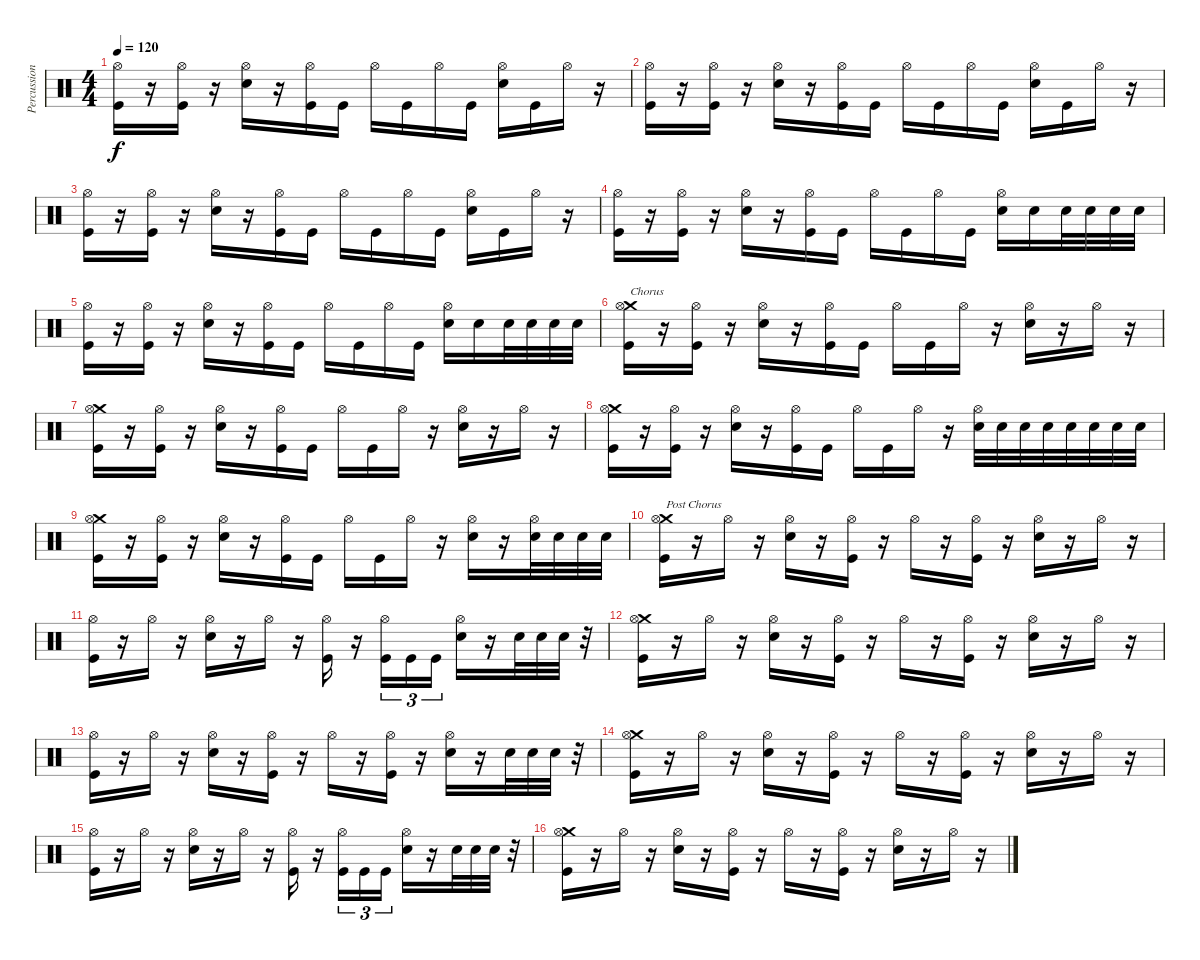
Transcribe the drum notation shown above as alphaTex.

\track ("Percussion" "Percussion") {instrument percussion}
\staff {score}
\articulation defaults
\ts (4 4)
\tempo 120
\clef neutral
\ks c
("Hi-Hat (open)" "Kick (hit)").16{dy f} r.16 ("Hi-Hat (open)" "Kick (hit)").16 r.16 ("Hi-Hat (open)" "Electric Snare (hit)").16 r.16 ("Hi-Hat (open)" "Kick (hit)").16 "Kick (hit)".16 "Hi-Hat (open)".16 "Kick (hit)".16 "Hi-Hat (open)".16 "Kick (hit)".16 ("Hi-Hat (open)" "Electric Snare (hit)").16 "Kick (hit)".16 "Hi-Hat (open)".16 r.16 |
("Hi-Hat (open)" "Kick (hit)").16 r.16 ("Hi-Hat (open)" "Kick (hit)").16 r.16 ("Hi-Hat (open)" "Electric Snare (hit)").16 r.16 ("Hi-Hat (open)" "Kick (hit)").16 "Kick (hit)".16 "Hi-Hat (open)".16 "Kick (hit)".16 "Hi-Hat (open)".16 "Kick (hit)".16 ("Hi-Hat (open)" "Electric Snare (hit)").16 "Kick (hit)".16 "Hi-Hat (open)".16 r.16 |
("Hi-Hat (open)" "Kick (hit)").16 r.16 ("Hi-Hat (open)" "Kick (hit)").16 r.16 ("Hi-Hat (open)" "Electric Snare (hit)").16 r.16 ("Hi-Hat (open)" "Kick (hit)").16 "Kick (hit)".16 "Hi-Hat (open)".16 "Kick (hit)".16 "Hi-Hat (open)".16 "Kick (hit)".16 ("Hi-Hat (open)" "Electric Snare (hit)").16 "Kick (hit)".16 "Hi-Hat (open)".16 r.16 |
("Hi-Hat (open)" "Kick (hit)").16 r.16 ("Hi-Hat (open)" "Kick (hit)").16 r.16 ("Hi-Hat (open)" "Electric Snare (hit)").16 r.16 ("Hi-Hat (open)" "Kick (hit)").16 "Kick (hit)".16 "Hi-Hat (open)".16 "Kick (hit)".16 "Hi-Hat (open)".16 "Kick (hit)".16 ("Hi-Hat (open)" "Electric Snare (hit)").16 "Electric Snare (hit)".16 "Electric Snare (hit)".32 "Electric Snare (hit)".32 "Electric Snare (hit)".32 "Electric Snare (hit)".32 |
("Hi-Hat (open)" "Kick (hit)").16 r.16 ("Hi-Hat (open)" "Kick (hit)").16 r.16 ("Hi-Hat (open)" "Electric Snare (hit)").16 r.16 ("Hi-Hat (open)" "Kick (hit)").16 "Kick (hit)".16 "Hi-Hat (open)".16 "Kick (hit)".16 "Hi-Hat (open)".16 "Kick (hit)".16 ("Hi-Hat (open)" "Electric Snare (hit)").16 "Electric Snare (hit)".16 "Electric Snare (hit)".32 "Electric Snare (hit)".32 "Electric Snare (hit)".32 "Electric Snare (hit)".32 |
("Crash medium (hit)" "Hi-Hat (open)" "Kick (hit)").16{txt "Chorus"} r.16 ("Hi-Hat (open)" "Kick (hit)").16 r.16 ("Hi-Hat (open)" "Electric Snare (hit)").16 r.16 ("Hi-Hat (open)" "Kick (hit)").16 "Kick (hit)".16 "Hi-Hat (open)".16 "Kick (hit)".16 "Hi-Hat (open)".16 r.16 ("Hi-Hat (open)" "Electric Snare (hit)").16 r.16 "Hi-Hat (open)".16 r.16 |
("Crash medium (hit)" "Hi-Hat (open)" "Kick (hit)").16 r.16 ("Hi-Hat (open)" "Kick (hit)").16 r.16 ("Hi-Hat (open)" "Electric Snare (hit)").16 r.16 ("Hi-Hat (open)" "Kick (hit)").16 "Kick (hit)".16 "Hi-Hat (open)".16 "Kick (hit)".16 "Hi-Hat (open)".16 r.16 ("Hi-Hat (open)" "Electric Snare (hit)").16 r.16 "Hi-Hat (open)".16 r.16 |
("Crash medium (hit)" "Hi-Hat (open)" "Kick (hit)").16 r.16 ("Hi-Hat (open)" "Kick (hit)").16 r.16 ("Hi-Hat (open)" "Electric Snare (hit)").16 r.16 ("Hi-Hat (open)" "Kick (hit)").16 "Kick (hit)".16 "Hi-Hat (open)".16 "Kick (hit)".16 "Hi-Hat (open)".16 r.16 ("Hi-Hat (open)" "Electric Snare (hit)").32 "Electric Snare (hit)".32 "Electric Snare (hit)".32 "Electric Snare (hit)".32 "Electric Snare (hit)".32 "Electric Snare (hit)".32 "Electric Snare (hit)".32 "Electric Snare (hit)".32 |
("Crash medium (hit)" "Hi-Hat (open)" "Kick (hit)").16 r.16 ("Hi-Hat (open)" "Kick (hit)").16 r.16 ("Hi-Hat (open)" "Electric Snare (hit)").16 r.16 ("Hi-Hat (open)" "Kick (hit)").16 "Kick (hit)".16 "Hi-Hat (open)".16 "Kick (hit)".16 "Hi-Hat (open)".16 r.16 ("Hi-Hat (open)" "Electric Snare (hit)").16 r.16 ("Hi-Hat (open)" "Electric Snare (hit)").32 "Electric Snare (hit)".32 "Electric Snare (hit)".32 "Electric Snare (hit)".32 |
("Crash medium (hit)" "Hi-Hat (open)" "Kick (hit)").16{txt "Post Chorus"} r.16 "Hi-Hat (open)".16 r.16 ("Hi-Hat (open)" "Electric Snare (hit)").16 r.16 ("Hi-Hat (open)" "Kick (hit)").16 r.16 "Hi-Hat (open)".16 r.16 ("Hi-Hat (open)" "Kick (hit)").16 r.16 ("Hi-Hat (open)" "Electric Snare (hit)").16 r.16 "Hi-Hat (open)".16 r.16 |
("Hi-Hat (open)" "Kick (hit)").16 r.16 "Hi-Hat (open)".16 r.16 ("Hi-Hat (open)" "Electric Snare (hit)").16 r.16 "Hi-Hat (open)".16 r.16 ("Hi-Hat (open)" "Kick (hit)").16 r.16 ("Hi-Hat (open)" "Kick (hit)").16{tu (3 2)} "Kick (hit)".16{tu (3 2)} "Kick (hit)".16{tu (3 2)} ("Hi-Hat (open)" "Electric Snare (hit)").16 r.16 "Electric Snare (hit)".32 "Electric Snare (hit)".32 "Electric Snare (hit)".32 r.32 |
("Crash medium (hit)" "Hi-Hat (open)" "Kick (hit)").16 r.16 "Hi-Hat (open)".16 r.16 ("Hi-Hat (open)" "Electric Snare (hit)").16 r.16 ("Hi-Hat (open)" "Kick (hit)").16 r.16 "Hi-Hat (open)".16 r.16 ("Hi-Hat (open)" "Kick (hit)").16 r.16 ("Hi-Hat (open)" "Electric Snare (hit)").16 r.16 "Hi-Hat (open)".16 r.16 |
("Hi-Hat (open)" "Kick (hit)").16 r.16 "Hi-Hat (open)".16 r.16 ("Hi-Hat (open)" "Electric Snare (hit)").16 r.16 ("Hi-Hat (open)" "Kick (hit)").16 r.16 "Hi-Hat (open)".16 r.16 ("Hi-Hat (open)" "Kick (hit)").16 r.16 ("Hi-Hat (open)" "Electric Snare (hit)").16 r.16 "Electric Snare (hit)".32 "Electric Snare (hit)".32 "Electric Snare (hit)".32 r.32 |
("Crash medium (hit)" "Hi-Hat (open)" "Kick (hit)").16 r.16 "Hi-Hat (open)".16 r.16 ("Hi-Hat (open)" "Electric Snare (hit)").16 r.16 ("Hi-Hat (open)" "Kick (hit)").16 r.16 "Hi-Hat (open)".16 r.16 ("Hi-Hat (open)" "Kick (hit)").16 r.16 ("Hi-Hat (open)" "Electric Snare (hit)").16 r.16 "Hi-Hat (open)".16 r.16 |
("Hi-Hat (open)" "Kick (hit)").16 r.16 "Hi-Hat (open)".16 r.16 ("Hi-Hat (open)" "Electric Snare (hit)").16 r.16 "Hi-Hat (open)".16 r.16 ("Hi-Hat (open)" "Kick (hit)").16 r.16 ("Hi-Hat (open)" "Kick (hit)").16{tu (3 2)} "Kick (hit)".16{tu (3 2)} "Kick (hit)".16{tu (3 2)} ("Hi-Hat (open)" "Electric Snare (hit)").16 r.16 "Electric Snare (hit)".32 "Electric Snare (hit)".32 "Electric Snare (hit)".32 r.32 |
("Crash medium (hit)" "Hi-Hat (open)" "Kick (hit)").16 r.16 "Hi-Hat (open)".16 r.16 ("Hi-Hat (open)" "Electric Snare (hit)").16 r.16 ("Hi-Hat (open)" "Kick (hit)").16 r.16 "Hi-Hat (open)".16 r.16 ("Hi-Hat (open)" "Kick (hit)").16 r.16 ("Hi-Hat (open)" "Electric Snare (hit)").16 r.16 "Hi-Hat (open)".16 r.16
